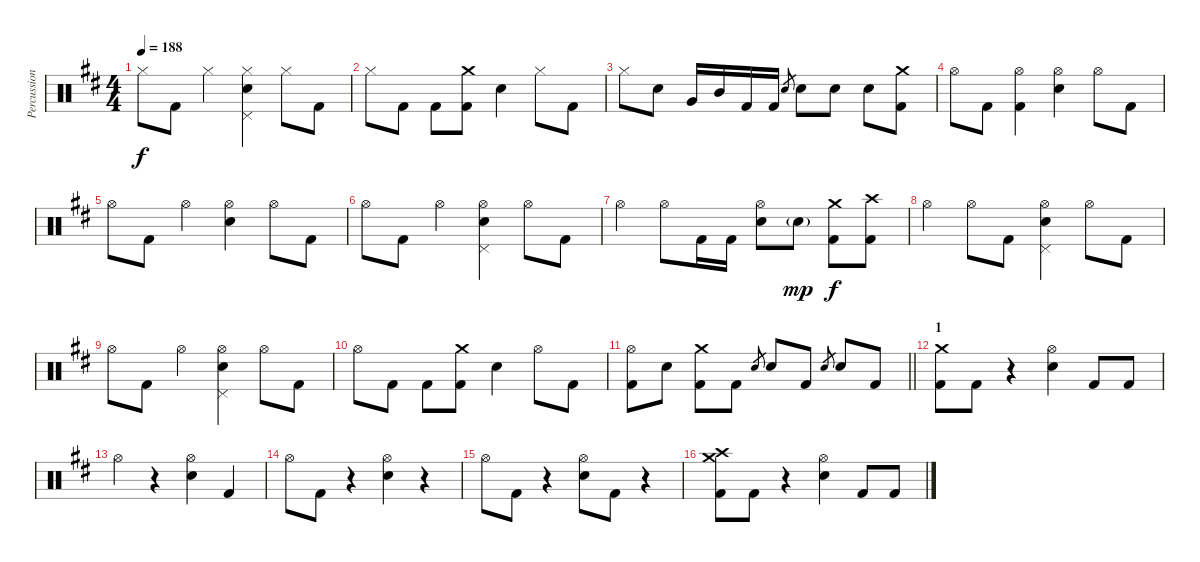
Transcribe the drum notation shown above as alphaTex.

\track ("Percussion" "Percussion") {instrument percussion}
\staff {score}
\articulation defaults
\ts (4 4)
\tempo 188
\clef neutral
\ks bminor "Hi-Hat (closed)".8{dy f} "Kick (hit) 2".8 "Hi-Hat (closed)".4
("Pedal Hi-Hat (hit)" "Electric Snare (hit)" "Hi-Hat (closed)").4 "Hi-Hat (closed)".8 "Kick (hit) 2".8 |
"Hi-Hat (closed)".8 "Kick (hit) 2".8 "Kick (hit) 2".8 ("Crash medium (hit)" "Kick (hit) 2").8 "Electric Snare (hit)".4 "Hi-Hat (closed)".8 "Kick (hit) 2".8 |
"Hi-Hat (closed)".8 "Electric Snare (hit)".8 "Very Low Tom (hit)".16 "Mid Tom (hit)".16 "Kick (hit) 2".16 "Kick (hit) 2".16 "Electric Snare (hit)".8{gr} "Electric Snare (hit)".8 "Electric Snare (hit)".8 "Electric Snare (hit)".8 ("Kick (hit) 2" "Crash medium (hit)").8 |
"Hi-Hat (open)".8 "Kick (hit) 2".8 ("Kick (hit) 2" "Hi-Hat (open)").4 ("Electric Snare (hit)" "Hi-Hat (open)").4 "Hi-Hat (open)".8 "Kick (hit) 2".8 |
"Hi-Hat (open)".8 "Kick (hit) 2".8 "Hi-Hat (open)".4 ("Electric Snare (hit)" "Hi-Hat (open)").4 "Hi-Hat (open)".8 "Kick (hit) 2".8 |
"Hi-Hat (open)".8 "Kick (hit) 2".8 "Hi-Hat (open)".4 ("Electric Snare (hit)" "Pedal Hi-Hat (hit)" "Hi-Hat (open)").4 "Hi-Hat (open)".8 "Kick (hit) 2".8 |
"Hi-Hat (open)".4 "Hi-Hat (open)".8 "Kick (hit) 2".16 "Kick (hit) 2".16 ("Electric Snare (hit)" "Hi-Hat (open)").8 "Electric Snare (hit)"{g}.8{dy mp} ("Kick (hit) 2" "Crash medium (hit)").8{dy f} ("Crash high (hit)" "Kick (hit) 2").8 |
"Hi-Hat (open)".4 "Hi-Hat (open)".8 "Kick (hit) 2".8 ("Pedal Hi-Hat (hit)" "Electric Snare (hit)" "Hi-Hat (open)").4 "Hi-Hat (open)".8 "Kick (hit) 2".8 |
"Hi-Hat (open)".8 "Kick (hit) 2".8 "Hi-Hat (open)".4 ("Pedal Hi-Hat (hit)" "Electric Snare (hit)" "Hi-Hat (open)").4 "Hi-Hat (open)".8 "Kick (hit) 2".8 |
"Hi-Hat (open)".8 "Kick (hit) 2".8 "Kick (hit) 2".8 ("Crash medium (hit)" "Kick (hit) 2").8 "Electric Snare (hit)".4 "Hi-Hat (open)".8 "Kick (hit) 2".8 |
\barLineRight lightlight
("Hi-Hat (open)" "Kick (hit) 2").8 "Electric Snare (hit)".8 ("Crash medium (hit)" "Kick (hit) 2").8 "Kick (hit) 2".8 "Electric Snare (hit)".8{gr} "Electric Snare (hit)".8 "Kick (hit) 2".8 "Electric Snare (hit)".8{gr} "Electric Snare (hit)".8 "Kick (hit) 2".8 |
\section ("" "1")
("Crash medium (hit)" "Kick (hit) 2").8 "Kick (hit) 2".8 r.4 ("Electric Snare (hit)" "Hi-Hat (open)").4 "Kick (hit) 2".8 "Kick (hit) 2".8 |
"Hi-Hat (open)".4 r.4 ("Electric Snare (hit)" "Hi-Hat (open)").4 "Kick (hit) 2".4 |
"Hi-Hat (open)".8 "Kick (hit) 2".8 r.4 ("Electric Snare (hit)" "Hi-Hat (open)").4 r.4 |
"Hi-Hat (open)".8 "Kick (hit) 2".8 r.4 ("Electric Snare (hit)" "Hi-Hat (open)").8 "Kick (hit) 2".8 r.4 |
("Crash medium (hit)" "Kick (hit) 2" "Crash high (hit)").8 "Kick (hit) 2".8 r.4 ("Electric Snare (hit)" "Hi-Hat (open)").4 "Kick (hit) 2".8 "Kick (hit) 2".8
